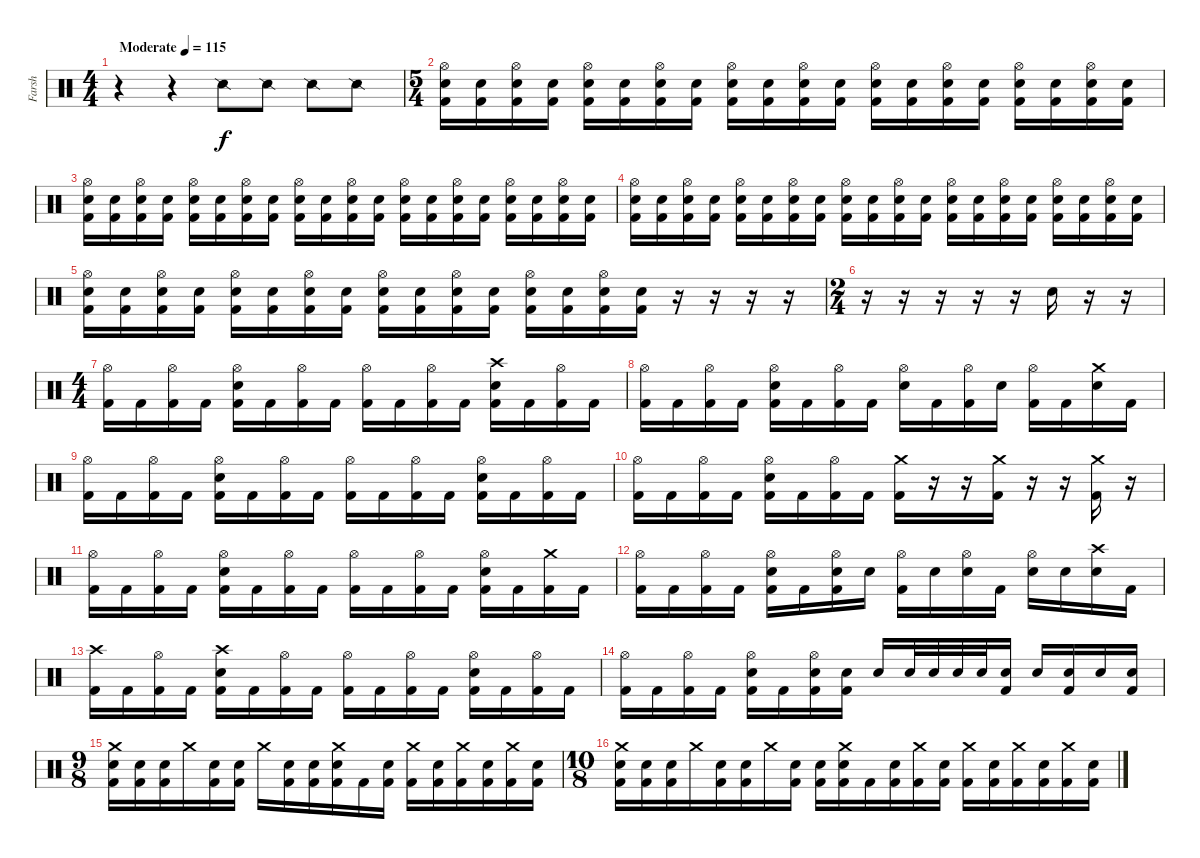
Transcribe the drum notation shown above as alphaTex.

\track ("Farsh" "Farsh") {instrument percussion}
\staff {score}
\articulation defaults
\ts (4 4)
\tempo (115 "Moderate")
\clef neutral
\ks c
r.4{dy f} r.4 "Snare (side stick) 2".8 "Snare (side stick) 2".8 "Snare (side stick) 2".8 "Snare (side stick) 2".8 |
\ts (5 4)
("Hi-Hat (open)" "Electric Snare (hit)" "Kick (hit) 2").16 ("Electric Snare (hit)" "Kick (hit) 2").16 ("Hi-Hat (open)" "Electric Snare (hit)" "Kick (hit) 2").16 ("Electric Snare (hit)" "Kick (hit) 2").16 ("Hi-Hat (open)" "Electric Snare (hit)" "Kick (hit) 2").16 ("Electric Snare (hit)" "Kick (hit) 2").16 ("Hi-Hat (open)" "Electric Snare (hit)" "Kick (hit) 2").16 ("Electric Snare (hit)" "Kick (hit) 2").16 ("Hi-Hat (open)" "Electric Snare (hit)" "Kick (hit) 2").16 ("Electric Snare (hit)" "Kick (hit) 2").16 ("Hi-Hat (open)" "Electric Snare (hit)" "Kick (hit) 2").16 ("Electric Snare (hit)" "Kick (hit) 2").16 ("Hi-Hat (open)" "Electric Snare (hit)" "Kick (hit) 2").16 ("Electric Snare (hit)" "Kick (hit) 2").16 ("Hi-Hat (open)" "Electric Snare (hit)" "Kick (hit) 2").16 ("Electric Snare (hit)" "Kick (hit) 2").16 ("Hi-Hat (open)" "Electric Snare (hit)" "Kick (hit) 2").16 ("Electric Snare (hit)" "Kick (hit) 2").16 ("Hi-Hat (open)" "Electric Snare (hit)" "Kick (hit) 2").16 ("Electric Snare (hit)" "Kick (hit) 2").16 |
("Hi-Hat (open)" "Electric Snare (hit)" "Kick (hit) 2").16 ("Electric Snare (hit)" "Kick (hit) 2").16 ("Hi-Hat (open)" "Electric Snare (hit)" "Kick (hit) 2").16 ("Electric Snare (hit)" "Kick (hit) 2").16 ("Hi-Hat (open)" "Electric Snare (hit)" "Kick (hit) 2").16 ("Electric Snare (hit)" "Kick (hit) 2").16 ("Hi-Hat (open)" "Electric Snare (hit)" "Kick (hit) 2").16 ("Electric Snare (hit)" "Kick (hit) 2").16 ("Hi-Hat (open)" "Electric Snare (hit)" "Kick (hit) 2").16 ("Electric Snare (hit)" "Kick (hit) 2").16 ("Hi-Hat (open)" "Electric Snare (hit)" "Kick (hit) 2").16 ("Electric Snare (hit)" "Kick (hit) 2").16 ("Hi-Hat (open)" "Electric Snare (hit)" "Kick (hit) 2").16 ("Electric Snare (hit)" "Kick (hit) 2").16 ("Hi-Hat (open)" "Electric Snare (hit)" "Kick (hit) 2").16 ("Electric Snare (hit)" "Kick (hit) 2").16 ("Hi-Hat (open)" "Electric Snare (hit)" "Kick (hit) 2").16 ("Electric Snare (hit)" "Kick (hit) 2").16 ("Hi-Hat (open)" "Electric Snare (hit)" "Kick (hit) 2").16 ("Electric Snare (hit)" "Kick (hit) 2").16 |
("Hi-Hat (open)" "Electric Snare (hit)" "Kick (hit) 2").16 ("Electric Snare (hit)" "Kick (hit) 2").16 ("Hi-Hat (open)" "Electric Snare (hit)" "Kick (hit) 2").16 ("Electric Snare (hit)" "Kick (hit) 2").16 ("Hi-Hat (open)" "Electric Snare (hit)" "Kick (hit) 2").16 ("Electric Snare (hit)" "Kick (hit) 2").16 ("Hi-Hat (open)" "Electric Snare (hit)" "Kick (hit) 2").16 ("Electric Snare (hit)" "Kick (hit) 2").16 ("Hi-Hat (open)" "Electric Snare (hit)" "Kick (hit) 2").16 ("Electric Snare (hit)" "Kick (hit) 2").16 ("Hi-Hat (open)" "Electric Snare (hit)" "Kick (hit) 2").16 ("Electric Snare (hit)" "Kick (hit) 2").16 ("Hi-Hat (open)" "Electric Snare (hit)" "Kick (hit) 2").16 ("Electric Snare (hit)" "Kick (hit) 2").16 ("Hi-Hat (open)" "Electric Snare (hit)" "Kick (hit) 2").16 ("Electric Snare (hit)" "Kick (hit) 2").16 ("Hi-Hat (open)" "Electric Snare (hit)" "Kick (hit) 2").16 ("Electric Snare (hit)" "Kick (hit) 2").16 ("Hi-Hat (open)" "Electric Snare (hit)" "Kick (hit) 2").16 ("Electric Snare (hit)" "Kick (hit) 2").16 |
("Hi-Hat (open)" "Electric Snare (hit)" "Kick (hit) 2").16 ("Electric Snare (hit)" "Kick (hit) 2").16 ("Hi-Hat (open)" "Electric Snare (hit)" "Kick (hit) 2").16 ("Electric Snare (hit)" "Kick (hit) 2").16 ("Hi-Hat (open)" "Electric Snare (hit)" "Kick (hit) 2").16 ("Electric Snare (hit)" "Kick (hit) 2").16 ("Hi-Hat (open)" "Electric Snare (hit)" "Kick (hit) 2").16 ("Electric Snare (hit)" "Kick (hit) 2").16 ("Hi-Hat (open)" "Electric Snare (hit)" "Kick (hit) 2").16 ("Electric Snare (hit)" "Kick (hit) 2").16 ("Hi-Hat (open)" "Electric Snare (hit)" "Kick (hit) 2").16 ("Electric Snare (hit)" "Kick (hit) 2").16 ("Hi-Hat (open)" "Electric Snare (hit)" "Kick (hit) 2").16 ("Electric Snare (hit)" "Kick (hit) 2").16 ("Hi-Hat (open)" "Electric Snare (hit)" "Kick (hit) 2").16 ("Electric Snare (hit)" "Kick (hit) 2").16 r.16 r.16 r.16 r.16 |
\ts (2 4)
r.16 r.16 r.16 r.16 r.16 "Electric Snare (hit)".16 r.16 r.16 |
\ts (4 4)
("Hi-Hat (open)" "Kick (hit) 2").16 "Kick (hit) 2".16 ("Hi-Hat (open)" "Kick (hit) 2").16 "Kick (hit) 2".16 ("Hi-Hat (open)" "Electric Snare (hit)" "Kick (hit) 2").16 "Kick (hit) 2".16 ("Hi-Hat (open)" "Kick (hit) 2").16 "Kick (hit) 2".16 ("Hi-Hat (open)" "Kick (hit) 2").16 "Kick (hit) 2".16 ("Hi-Hat (open)" "Kick (hit) 2").16 "Kick (hit) 2".16 ("Crash high (hit)" "Electric Snare (hit)" "Kick (hit) 2").16 "Kick (hit) 2".16 ("Hi-Hat (open)" "Kick (hit) 2").16 "Kick (hit) 2".16 |
("Hi-Hat (open)" "Kick (hit) 2").16 "Kick (hit) 2".16 ("Hi-Hat (open)" "Kick (hit) 2").16 "Kick (hit) 2".16 ("Hi-Hat (open)" "Electric Snare (hit)" "Kick (hit) 2").16 "Kick (hit) 2".16 ("Hi-Hat (open)" "Kick (hit) 2").16 "Kick (hit) 2".16 ("Hi-Hat (open)" "Electric Snare (hit)").16 "Kick (hit) 2".16 ("Hi-Hat (open)" "Kick (hit) 2").16 "Electric Snare (hit)".16 ("Hi-Hat (open)" "Kick (hit) 2").16 "Kick (hit) 2".16 ("Crash medium (hit)" "Electric Snare (hit)").16 "Kick (hit) 2".16 |
("Hi-Hat (open)" "Kick (hit) 2").16 "Kick (hit) 2".16 ("Hi-Hat (open)" "Kick (hit) 2").16 "Kick (hit) 2".16 ("Hi-Hat (open)" "Electric Snare (hit)" "Kick (hit) 2").16 "Kick (hit) 2".16 ("Hi-Hat (open)" "Kick (hit) 2").16 "Kick (hit) 2".16 ("Hi-Hat (open)" "Kick (hit) 2").16 "Kick (hit) 2".16 ("Hi-Hat (open)" "Kick (hit) 2").16 "Kick (hit) 2".16 ("Hi-Hat (open)" "Electric Snare (hit)" "Kick (hit) 2").16 "Kick (hit) 2".16 ("Hi-Hat (open)" "Kick (hit) 2").16 "Kick (hit) 2".16 |
("Hi-Hat (open)" "Kick (hit) 2").16 "Kick (hit) 2".16 ("Hi-Hat (open)" "Kick (hit) 2").16 "Kick (hit) 2".16 ("Hi-Hat (open)" "Electric Snare (hit)" "Kick (hit) 2").16 "Kick (hit) 2".16 ("Hi-Hat (open)" "Kick (hit) 2").16 "Kick (hit) 2".16 ("Crash medium (hit)" "Kick (hit) 2").16 r.16 r.16 ("Crash medium (hit)" "Kick (hit) 2").16 r.16 r.16 ("Crash medium (hit)" "Kick (hit) 2").16 r.16 |
("Hi-Hat (open)" "Kick (hit) 2").16 "Kick (hit) 2".16 ("Hi-Hat (open)" "Kick (hit) 2").16 "Kick (hit) 2".16 ("Hi-Hat (open)" "Electric Snare (hit)" "Kick (hit) 2").16 "Kick (hit) 2".16 ("Hi-Hat (open)" "Kick (hit) 2").16 "Kick (hit) 2".16 ("Hi-Hat (open)" "Kick (hit) 2").16 "Kick (hit) 2".16 ("Hi-Hat (open)" "Kick (hit) 2").16 "Kick (hit) 2".16 ("Hi-Hat (open)" "Electric Snare (hit)" "Kick (hit) 2").16 "Kick (hit) 2".16 ("Crash medium (hit)" "Kick (hit) 2").16 "Kick (hit) 2".16 |
("Hi-Hat (open)" "Kick (hit) 2").16 "Kick (hit) 2".16 ("Hi-Hat (open)" "Kick (hit) 2").16 "Kick (hit) 2".16 ("Hi-Hat (open)" "Electric Snare (hit)" "Kick (hit) 2").16 "Kick (hit) 2".16 ("Hi-Hat (open)" "Electric Snare (hit)" "Kick (hit) 2").16 "Electric Snare (hit)".16 ("Hi-Hat (open)" "Kick (hit) 2").16 "Electric Snare (hit)".16 ("Hi-Hat (open)" "Electric Snare (hit)").16 "Kick (hit) 2".16 ("Hi-Hat (open)" "Electric Snare (hit)").16 "Electric Snare (hit)".16 ("Crash high (hit)" "Electric Snare (hit)").16 "Kick (hit) 2".16 |
("Crash high (hit)" "Kick (hit) 2").16 "Kick (hit) 2".16 ("Hi-Hat (open)" "Kick (hit) 2").16 "Kick (hit) 2".16 ("Crash high (hit)" "Electric Snare (hit)" "Kick (hit) 2").16 "Kick (hit) 2".16 ("Hi-Hat (open)" "Kick (hit) 2").16 "Kick (hit) 2".16 ("Hi-Hat (open)" "Kick (hit) 2").16 "Kick (hit) 2".16 ("Hi-Hat (open)" "Kick (hit) 2").16 "Kick (hit) 2".16 ("Hi-Hat (open)" "Electric Snare (hit)" "Kick (hit) 2").16 "Kick (hit) 2".16 ("Hi-Hat (open)" "Kick (hit) 2").16 "Kick (hit) 2".16 |
("Hi-Hat (open)" "Kick (hit) 2").16 "Kick (hit) 2".16 ("Hi-Hat (open)" "Kick (hit) 2").16 "Kick (hit) 2".16 ("Hi-Hat (open)" "Electric Snare (hit)" "Kick (hit) 2").16 "Kick (hit) 2".16 ("Hi-Hat (open)" "Electric Snare (hit)" "Kick (hit) 2").16 ("Electric Snare (hit)" "Kick (hit) 2").16 "Electric Snare (hit)".16 "Electric Snare (hit)".32 "Electric Snare (hit)".32 "Electric Snare (hit)".32 "Electric Snare (hit)".32 ("Electric Snare (hit)" "Kick (hit) 2").16 "Electric Snare (hit)".16 ("Electric Snare (hit)" "Kick (hit) 2").16 "Electric Snare (hit)".16 ("Electric Snare (hit)" "Kick (hit) 2").16 |
\ts (9 8)
("Crash medium (hit)" "Electric Snare (hit)" "Kick (hit) 2").16 ("Electric Snare (hit)" "Kick (hit) 2").16 ("Electric Snare (hit)" "Kick (hit) 2").16 "Crash medium (hit)".16 ("Electric Snare (hit)" "Kick (hit) 2").16 ("Electric Snare (hit)" "Kick (hit) 2").16 "Crash medium (hit)".16 ("Electric Snare (hit)" "Kick (hit) 2").16 ("Electric Snare (hit)" "Kick (hit) 2").16 ("Crash medium (hit)" "Electric Snare (hit)" "Kick (hit) 2").16 "Kick (hit) 2".16 ("Electric Snare (hit)" "Kick (hit) 2").16 ("Crash medium (hit)" "Kick (hit) 2").16 ("Electric Snare (hit)" "Kick (hit) 2").16 ("Crash medium (hit)" "Kick (hit) 2").16 ("Electric Snare (hit)" "Kick (hit) 2").16 ("Crash medium (hit)" "Kick (hit) 2").16 ("Electric Snare (hit)" "Kick (hit) 2").16 |
\ts (10 8)
("Crash medium (hit)" "Electric Snare (hit)" "Kick (hit) 2").16 ("Electric Snare (hit)" "Kick (hit) 2").16 ("Electric Snare (hit)" "Kick (hit) 2").16 "Crash medium (hit)".16 ("Electric Snare (hit)" "Kick (hit) 2").16 ("Electric Snare (hit)" "Kick (hit) 2").16 "Crash medium (hit)".16 ("Electric Snare (hit)" "Kick (hit) 2").16 ("Electric Snare (hit)" "Kick (hit) 2").16 ("Crash medium (hit)" "Electric Snare (hit)" "Kick (hit) 2").16 "Kick (hit) 2".16 ("Electric Snare (hit)" "Kick (hit) 2").16 ("Crash medium (hit)" "Kick (hit) 2").16 ("Electric Snare (hit)" "Kick (hit) 2").16 ("Crash medium (hit)" "Kick (hit) 2").16 ("Electric Snare (hit)" "Kick (hit) 2").16 ("Crash medium (hit)" "Kick (hit) 2").16 ("Electric Snare (hit)" "Kick (hit) 2").16 ("Crash medium (hit)" "Kick (hit) 2").16 ("Electric Snare (hit)" "Kick (hit) 2").16
